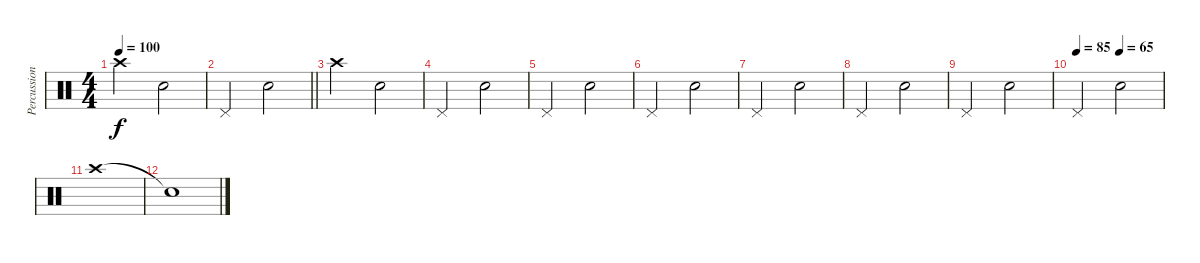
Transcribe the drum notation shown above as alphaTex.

\track ("Percussioni" "Percussion") {instrument percussion}
\staff {score}
\articulation defaults
\ts (4 4)
\tempo 100
\clef neutral
\ks c "Crash high (hit)".2{dy f} "Snare (hit) 2".2
|
\barLineRight lightlight "Pedal Hi-Hat (hit)".2 "Snare (hit) 2".2
|
"Crash high (hit)".2 "Snare (hit) 2".2 |
"Pedal Hi-Hat (hit)".2 "Snare (hit) 2".2 |
"Pedal Hi-Hat (hit)".2 "Snare (hit) 2".2 |
"Pedal Hi-Hat (hit)".2 "Snare (hit) 2".2 |
"Pedal Hi-Hat (hit)".2 "Snare (hit) 2".2 |
"Pedal Hi-Hat (hit)".2 "Snare (hit) 2".2 |
"Pedal Hi-Hat (hit)".2 "Snare (hit) 2".2 |
\tempo 85
\tempo (65 0.5)
"Pedal Hi-Hat (hit)".2 "Snare (hit) 2".2 |
"Crash high (hit)".1 |
"Snare (hit)"{t}.1
